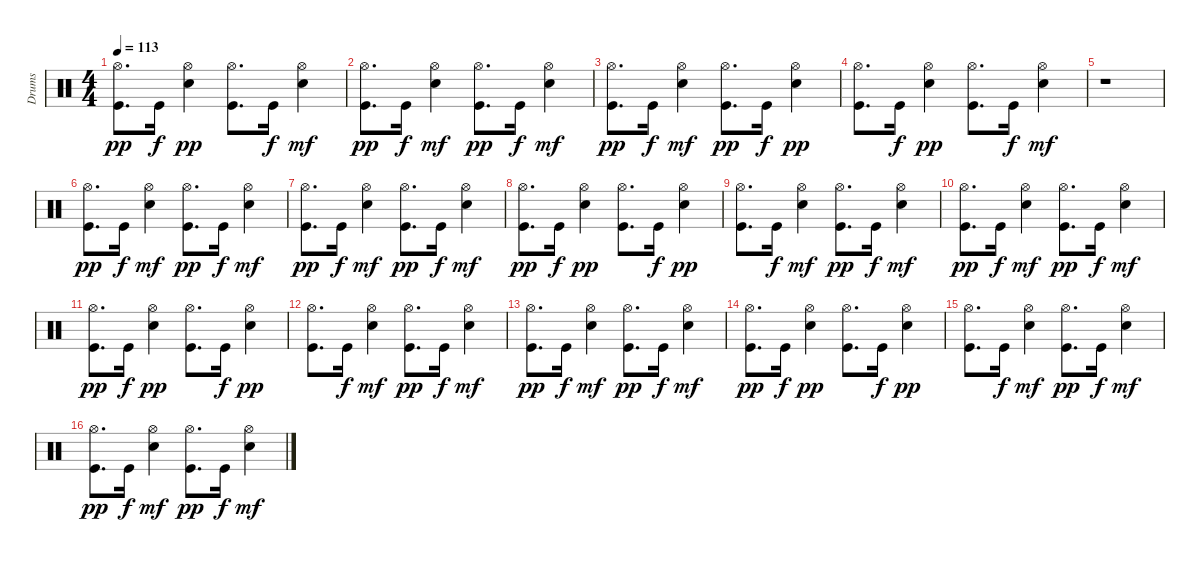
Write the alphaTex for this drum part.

\track ("Drums" "Drums") {instrument percussion}
\staff {score}
\articulation defaults
\ts (4 4)
\tempo 113
\clef neutral
\ks c
("Kick (hit)" "Hi-Hat (open)").8{d dy pp} "Kick (hit)".16{dy f} ("Electric Snare (hit)" "Hi-Hat (open)").4{dy pp} ("Hi-Hat (open)" "Kick (hit)").8{d} "Kick (hit)".16{dy f} ("Hi-Hat (open)" "Electric Snare (hit)").4{dy mf} |
("Hi-Hat (open)" "Kick (hit)").8{d dy pp} "Kick (hit)".16{dy f} ("Hi-Hat (open)" "Electric Snare (hit)").4{dy mf} ("Hi-Hat (open)" "Kick (hit)").8{d dy pp} "Kick (hit)".16{dy f} ("Hi-Hat (open)" "Electric Snare (hit)").4{dy mf} |
("Hi-Hat (open)" "Kick (hit)").8{d dy pp} "Kick (hit)".16{dy f} ("Hi-Hat (open)" "Electric Snare (hit)").4{dy mf} ("Hi-Hat (open)" "Kick (hit)").8{d dy pp} "Kick (hit)".16{dy f} ("Electric Snare (hit)" "Hi-Hat (open)").4{dy pp} |
("Kick (hit)" "Hi-Hat (open)").8{d} "Kick (hit)".16{dy f} ("Electric Snare (hit)" "Hi-Hat (open)").4{dy pp} ("Hi-Hat (open)" "Kick (hit)").8{d} "Kick (hit)".16{dy f} ("Hi-Hat (open)" "Electric Snare (hit)").4{dy mf} |
r.1 |
("Hi-Hat (open)" "Kick (hit)").8{d dy pp} "Kick (hit)".16{dy f} ("Hi-Hat (open)" "Electric Snare (hit)").4{dy mf} ("Hi-Hat (open)" "Kick (hit)").8{d dy pp} "Kick (hit)".16{dy f} ("Hi-Hat (open)" "Electric Snare (hit)").4{dy mf} |
("Hi-Hat (open)" "Kick (hit)").8{d dy pp} "Kick (hit)".16{dy f} ("Hi-Hat (open)" "Electric Snare (hit)").4{dy mf} ("Hi-Hat (open)" "Kick (hit)").8{d dy pp} "Kick (hit)".16{dy f} ("Hi-Hat (open)" "Electric Snare (hit)").4{dy mf} |
("Hi-Hat (open)" "Kick (hit)").8{d dy pp} "Kick (hit)".16{dy f} ("Electric Snare (hit)" "Hi-Hat (open)").4{dy pp} ("Kick (hit)" "Hi-Hat (open)").8{d} "Kick (hit)".16{dy f} ("Electric Snare (hit)" "Hi-Hat (open)").4{dy pp} |
("Hi-Hat (open)" "Kick (hit)").8{d} "Kick (hit)".16{dy f} ("Hi-Hat (open)" "Electric Snare (hit)").4{dy mf} ("Hi-Hat (open)" "Kick (hit)").8{d dy pp} "Kick (hit)".16{dy f} ("Hi-Hat (open)" "Electric Snare (hit)").4{dy mf} |
("Hi-Hat (open)" "Kick (hit)").8{d dy pp} "Kick (hit)".16{dy f} ("Hi-Hat (open)" "Electric Snare (hit)").4{dy mf} ("Hi-Hat (open)" "Kick (hit)").8{d dy pp} "Kick (hit)".16{dy f} ("Hi-Hat (open)" "Electric Snare (hit)").4{dy mf} |
("Hi-Hat (open)" "Kick (hit)").8{d dy pp} "Kick (hit)".16{dy f} ("Electric Snare (hit)" "Hi-Hat (open)").4{dy pp} ("Kick (hit)" "Hi-Hat (open)").8{d} "Kick (hit)".16{dy f} ("Electric Snare (hit)" "Hi-Hat (open)").4{dy pp} |
("Hi-Hat (open)" "Kick (hit)").8{d} "Kick (hit)".16{dy f} ("Hi-Hat (open)" "Electric Snare (hit)").4{dy mf} ("Hi-Hat (open)" "Kick (hit)").8{d dy pp} "Kick (hit)".16{dy f} ("Hi-Hat (open)" "Electric Snare (hit)").4{dy mf} |
("Hi-Hat (open)" "Kick (hit)").8{d dy pp} "Kick (hit)".16{dy f} ("Hi-Hat (open)" "Electric Snare (hit)").4{dy mf} ("Hi-Hat (open)" "Kick (hit)").8{d dy pp} "Kick (hit)".16{dy f} ("Hi-Hat (open)" "Electric Snare (hit)").4{dy mf} |
("Hi-Hat (open)" "Kick (hit)").8{d dy pp} "Kick (hit)".16{dy f} ("Electric Snare (hit)" "Hi-Hat (open)").4{dy pp} ("Kick (hit)" "Hi-Hat (open)").8{d} "Kick (hit)".16{dy f} ("Electric Snare (hit)" "Hi-Hat (open)").4{dy pp} |
("Hi-Hat (open)" "Kick (hit)").8{d} "Kick (hit)".16{dy f} ("Hi-Hat (open)" "Electric Snare (hit)").4{dy mf} ("Hi-Hat (open)" "Kick (hit)").8{d dy pp} "Kick (hit)".16{dy f} ("Hi-Hat (open)" "Electric Snare (hit)").4{dy mf} |
("Hi-Hat (open)" "Kick (hit)").8{d dy pp} "Kick (hit)".16{dy f} ("Hi-Hat (open)" "Electric Snare (hit)").4{dy mf} ("Hi-Hat (open)" "Kick (hit)").8{d dy pp} "Kick (hit)".16{dy f} ("Hi-Hat (open)" "Electric Snare (hit)").4{dy mf}
